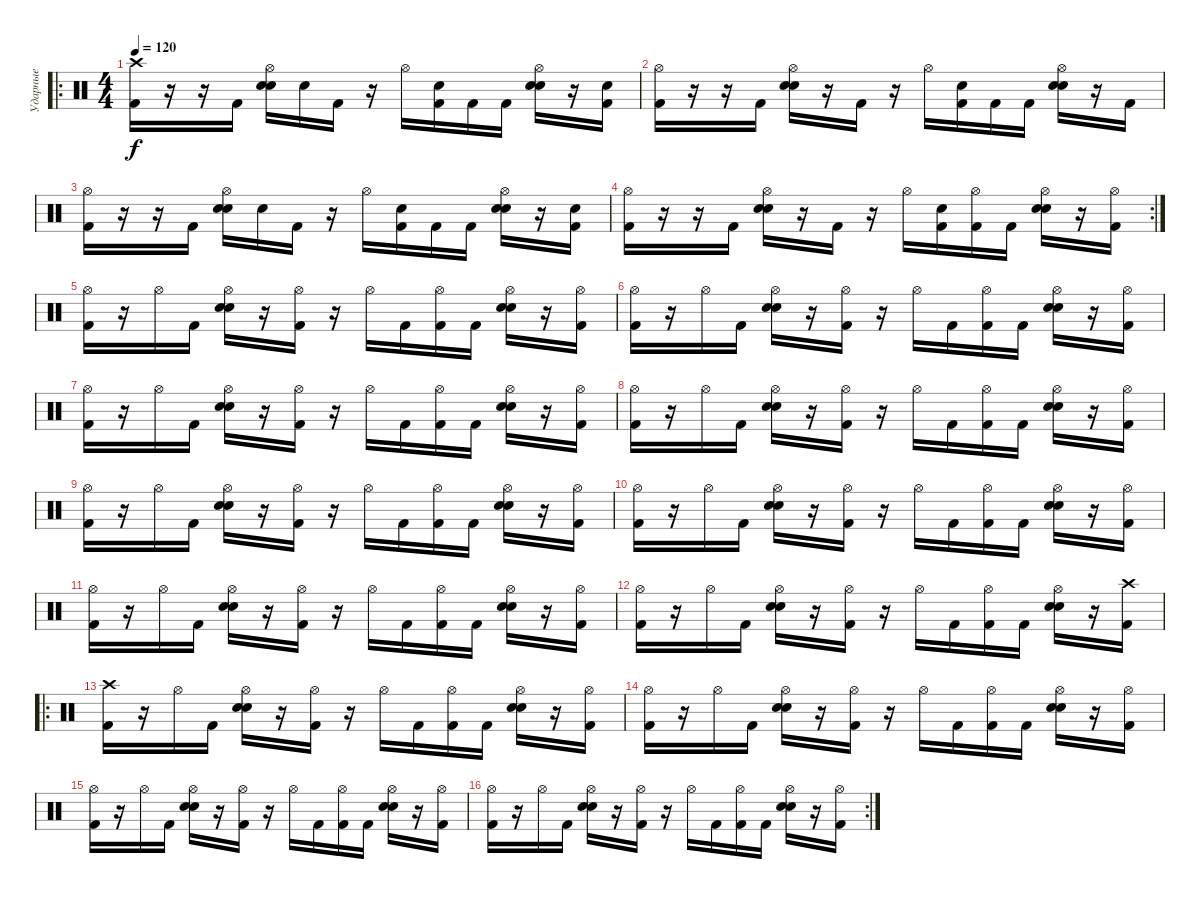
\track ("Ударные" "Ударные") {instrument percussion}
\staff {score}
\articulation defaults
\ro
\ts (4 4)
\tempo 120
\clef neutral
\ks c
("Crash high (hit)" "Kick (hit) 2").16{dy f} r.16 r.16 "Kick (hit) 2".16 ("Hi-Hat (open)" "Electric Snare (hit)" "Snare (hit) 2").16 "Electric Snare (hit)".16 "Kick (hit) 2".16 r.16 "Hi-Hat (open)".16 ("Kick (hit) 2" "Electric Snare (hit)").16 "Kick (hit) 2".16 "Kick (hit) 2".16 ("Hi-Hat (open)" "Electric Snare (hit)" "Snare (hit) 2").16 r.16 ("Kick (hit) 2" "Electric Snare (hit)").16 |
("Hi-Hat (open)" "Kick (hit) 2").16 r.16 r.16 "Kick (hit) 2".16 ("Hi-Hat (open)" "Electric Snare (hit)" "Snare (hit) 2").16 r.16 "Kick (hit) 2".16 r.16 "Hi-Hat (open)".16 ("Kick (hit) 2" "Electric Snare (hit)").16 "Kick (hit) 2".16 "Kick (hit) 2".16 ("Hi-Hat (open)" "Electric Snare (hit)" "Snare (hit) 2").16 r.16 "Kick (hit) 2".16 |
("Hi-Hat (open)" "Kick (hit) 2").16 r.16 r.16 "Kick (hit) 2".16 ("Hi-Hat (open)" "Electric Snare (hit)" "Snare (hit) 2").16 "Electric Snare (hit)".16 "Kick (hit) 2".16 r.16 "Hi-Hat (open)".16 ("Kick (hit) 2" "Electric Snare (hit)").16 "Kick (hit) 2".16 "Kick (hit) 2".16 ("Hi-Hat (open)" "Electric Snare (hit)" "Snare (hit) 2").16 r.16 ("Kick (hit) 2" "Electric Snare (hit)").16 |
\rc 2
("Hi-Hat (open)" "Kick (hit) 2").16 r.16 r.16 "Kick (hit) 2".16 ("Hi-Hat (open)" "Electric Snare (hit)" "Snare (hit) 2").16 r.16 "Kick (hit) 2".16 r.16 "Hi-Hat (open)".16 ("Kick (hit) 2" "Electric Snare (hit)").16 ("Hi-Hat (open)" "Kick (hit) 2").16 "Kick (hit) 2".16 ("Hi-Hat (open)" "Electric Snare (hit)" "Snare (hit) 2").16 r.16 ("Hi-Hat (open)" "Kick (hit) 2").16 |
("Hi-Hat (open)" "Kick (hit) 2").16 r.16 "Hi-Hat (open)".16 "Kick (hit) 2".16 ("Hi-Hat (open)" "Electric Snare (hit)" "Snare (hit) 2").16 r.16 ("Hi-Hat (open)" "Kick (hit) 2").16 r.16 "Hi-Hat (open)".16 "Kick (hit) 2".16 ("Hi-Hat (open)" "Kick (hit) 2").16 "Kick (hit) 2".16 ("Hi-Hat (open)" "Electric Snare (hit)" "Snare (hit) 2").16 r.16 ("Hi-Hat (open)" "Kick (hit) 2").16 |
("Hi-Hat (open)" "Kick (hit) 2").16 r.16 "Hi-Hat (open)".16 "Kick (hit) 2".16 ("Hi-Hat (open)" "Electric Snare (hit)" "Snare (hit) 2").16 r.16 ("Hi-Hat (open)" "Kick (hit) 2").16 r.16 "Hi-Hat (open)".16 "Kick (hit) 2".16 ("Hi-Hat (open)" "Kick (hit) 2").16 "Kick (hit) 2".16 ("Hi-Hat (open)" "Electric Snare (hit)" "Snare (hit) 2").16 r.16 ("Hi-Hat (open)" "Kick (hit) 2").16 |
("Hi-Hat (open)" "Kick (hit) 2").16 r.16 "Hi-Hat (open)".16 "Kick (hit) 2".16 ("Hi-Hat (open)" "Electric Snare (hit)" "Snare (hit) 2").16 r.16 ("Hi-Hat (open)" "Kick (hit) 2").16 r.16 "Hi-Hat (open)".16 "Kick (hit) 2".16 ("Hi-Hat (open)" "Kick (hit) 2").16 "Kick (hit) 2".16 ("Hi-Hat (open)" "Electric Snare (hit)" "Snare (hit) 2").16 r.16 ("Hi-Hat (open)" "Kick (hit) 2").16 |
("Hi-Hat (open)" "Kick (hit) 2").16 r.16 "Hi-Hat (open)".16 "Kick (hit) 2".16 ("Hi-Hat (open)" "Electric Snare (hit)" "Snare (hit) 2").16 r.16 ("Hi-Hat (open)" "Kick (hit) 2").16 r.16 "Hi-Hat (open)".16 "Kick (hit) 2".16 ("Hi-Hat (open)" "Kick (hit) 2").16 "Kick (hit) 2".16 ("Hi-Hat (open)" "Electric Snare (hit)" "Snare (hit) 2").16 r.16 ("Hi-Hat (open)" "Kick (hit) 2").16 |
("Hi-Hat (open)" "Kick (hit) 2").16 r.16 "Hi-Hat (open)".16 "Kick (hit) 2".16 ("Hi-Hat (open)" "Electric Snare (hit)" "Snare (hit) 2").16 r.16 ("Hi-Hat (open)" "Kick (hit) 2").16 r.16 "Hi-Hat (open)".16 "Kick (hit) 2".16 ("Hi-Hat (open)" "Kick (hit) 2").16 "Kick (hit) 2".16 ("Hi-Hat (open)" "Electric Snare (hit)" "Snare (hit) 2").16 r.16 ("Hi-Hat (open)" "Kick (hit) 2").16 |
("Hi-Hat (open)" "Kick (hit) 2").16 r.16 "Hi-Hat (open)".16 "Kick (hit) 2".16 ("Hi-Hat (open)" "Electric Snare (hit)" "Snare (hit) 2").16 r.16 ("Hi-Hat (open)" "Kick (hit) 2").16 r.16 "Hi-Hat (open)".16 "Kick (hit) 2".16 ("Hi-Hat (open)" "Kick (hit) 2").16 "Kick (hit) 2".16 ("Hi-Hat (open)" "Electric Snare (hit)" "Snare (hit) 2").16 r.16 ("Hi-Hat (open)" "Kick (hit) 2").16 |
("Hi-Hat (open)" "Kick (hit) 2").16 r.16 "Hi-Hat (open)".16 "Kick (hit) 2".16 ("Hi-Hat (open)" "Electric Snare (hit)" "Snare (hit) 2").16 r.16 ("Hi-Hat (open)" "Kick (hit) 2").16 r.16 "Hi-Hat (open)".16 "Kick (hit) 2".16 ("Hi-Hat (open)" "Kick (hit) 2").16 "Kick (hit) 2".16 ("Hi-Hat (open)" "Electric Snare (hit)" "Snare (hit) 2").16 r.16 ("Hi-Hat (open)" "Kick (hit) 2").16 |
("Hi-Hat (open)" "Kick (hit) 2").16 r.16 "Hi-Hat (open)".16 "Kick (hit) 2".16 ("Hi-Hat (open)" "Electric Snare (hit)" "Snare (hit) 2").16 r.16 ("Hi-Hat (open)" "Kick (hit) 2").16 r.16 "Hi-Hat (open)".16 "Kick (hit) 2".16 ("Hi-Hat (open)" "Kick (hit) 2").16 "Kick (hit) 2".16 ("Hi-Hat (open)" "Electric Snare (hit)" "Snare (hit) 2").16 r.16 ("Crash high (hit)" "Kick (hit) 2").16 |
\ro
("Crash high (hit)" "Kick (hit) 2").16 r.16 "Hi-Hat (open)".16 "Kick (hit) 2".16 ("Hi-Hat (open)" "Electric Snare (hit)" "Snare (hit) 2").16 r.16 ("Hi-Hat (open)" "Kick (hit) 2").16 r.16 "Hi-Hat (open)".16 "Kick (hit) 2".16 ("Hi-Hat (open)" "Kick (hit) 2").16 "Kick (hit) 2".16 ("Hi-Hat (open)" "Electric Snare (hit)" "Snare (hit) 2").16 r.16 ("Hi-Hat (open)" "Kick (hit) 2").16 |
("Hi-Hat (open)" "Kick (hit) 2").16 r.16 "Hi-Hat (open)".16 "Kick (hit) 2".16 ("Hi-Hat (open)" "Electric Snare (hit)" "Snare (hit) 2").16 r.16 ("Hi-Hat (open)" "Kick (hit) 2").16 r.16 "Hi-Hat (open)".16 "Kick (hit) 2".16 ("Hi-Hat (open)" "Kick (hit) 2").16 "Kick (hit) 2".16 ("Hi-Hat (open)" "Electric Snare (hit)" "Snare (hit) 2").16 r.16 ("Hi-Hat (open)" "Kick (hit) 2").16 |
("Hi-Hat (open)" "Kick (hit) 2").16 r.16 "Hi-Hat (open)".16 "Kick (hit) 2".16 ("Hi-Hat (open)" "Electric Snare (hit)" "Snare (hit) 2").16 r.16 ("Hi-Hat (open)" "Kick (hit) 2").16 r.16 "Hi-Hat (open)".16 "Kick (hit) 2".16 ("Hi-Hat (open)" "Kick (hit) 2").16 "Kick (hit) 2".16 ("Hi-Hat (open)" "Electric Snare (hit)" "Snare (hit) 2").16 r.16 ("Hi-Hat (open)" "Kick (hit) 2").16 |
\rc 2
("Hi-Hat (open)" "Kick (hit) 2").16 r.16 "Hi-Hat (open)".16 "Kick (hit) 2".16 ("Hi-Hat (open)" "Electric Snare (hit)" "Snare (hit) 2").16 r.16 ("Hi-Hat (open)" "Kick (hit) 2").16 r.16 "Hi-Hat (open)".16 "Kick (hit) 2".16 ("Hi-Hat (open)" "Kick (hit) 2").16 "Kick (hit) 2".16 ("Hi-Hat (open)" "Electric Snare (hit)" "Snare (hit) 2").16 r.16 ("Hi-Hat (open)" "Kick (hit) 2").16
